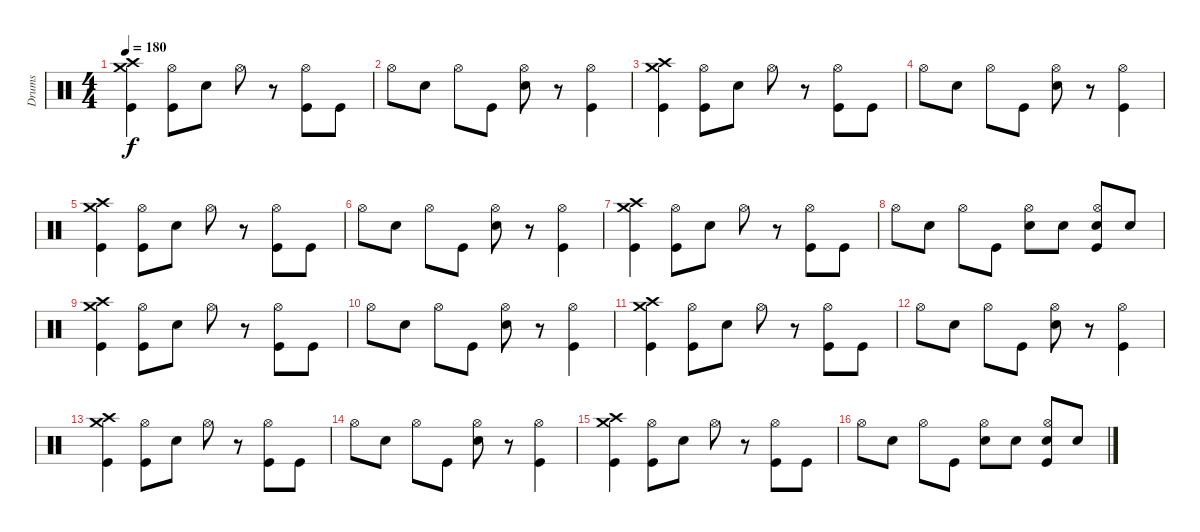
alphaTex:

\track ("Drums" "Drums") {instrument percussion}
\staff {score}
\articulation defaults
\ts (4 4)
\tempo 180
\clef neutral
\ks c
("Crash medium (hit)" "Crash high (hit)" "Kick (hit)").4{dy f} ("Hi-Hat (open)" "Kick (hit)").8 "Snare (hit) 2".8 "Hi-Hat (open)".8 r.8 ("Hi-Hat (open)" "Kick (hit)").8 "Kick (hit)".8 |
"Hi-Hat (open)".8 "Snare (hit) 2".8 "Hi-Hat (open)".8 "Kick (hit)".8 ("Hi-Hat (open)" "Snare (hit) 2").8 r.8 ("Hi-Hat (open)" "Kick (hit)").4 |
("Crash medium (hit)" "Crash high (hit)" "Kick (hit)").4 ("Hi-Hat (open)" "Kick (hit)").8 "Snare (hit) 2".8 "Hi-Hat (open)".8 r.8 ("Hi-Hat (open)" "Kick (hit)").8 "Kick (hit)".8 |
"Hi-Hat (open)".8 "Snare (hit) 2".8 "Hi-Hat (open)".8 "Kick (hit)".8 ("Hi-Hat (open)" "Snare (hit) 2").8 r.8 ("Hi-Hat (open)" "Kick (hit)").4 |
("Crash medium (hit)" "Crash high (hit)" "Kick (hit)").4 ("Hi-Hat (open)" "Kick (hit)").8 "Snare (hit) 2".8 "Hi-Hat (open)".8 r.8 ("Hi-Hat (open)" "Kick (hit)").8 "Kick (hit)".8 |
"Hi-Hat (open)".8 "Snare (hit) 2".8 "Hi-Hat (open)".8 "Kick (hit)".8 ("Hi-Hat (open)" "Snare (hit) 2").8 r.8 ("Hi-Hat (open)" "Kick (hit)").4 |
("Crash medium (hit)" "Crash high (hit)" "Kick (hit)").4 ("Hi-Hat (open)" "Kick (hit)").8 "Snare (hit) 2".8 "Hi-Hat (open)".8 r.8 ("Hi-Hat (open)" "Kick (hit)").8 "Kick (hit)".8 |
"Hi-Hat (open)".8 "Snare (hit) 2".8 "Hi-Hat (open)".8 "Kick (hit)".8 ("Hi-Hat (open)" "Snare (hit) 2").8 "Snare (hit) 2".8 ("Snare (hit) 2" "Hi-Hat (open)" "Kick (hit)").8 "Snare (hit) 2".8 |
("Crash medium (hit)" "Crash high (hit)" "Kick (hit)").4 ("Hi-Hat (open)" "Kick (hit)").8 "Snare (hit) 2".8 "Hi-Hat (open)".8 r.8 ("Hi-Hat (open)" "Kick (hit)").8 "Kick (hit)".8 |
"Hi-Hat (open)".8 "Snare (hit) 2".8 "Hi-Hat (open)".8 "Kick (hit)".8 ("Hi-Hat (open)" "Snare (hit) 2").8 r.8 ("Hi-Hat (open)" "Kick (hit)").4 |
("Crash medium (hit)" "Crash high (hit)" "Kick (hit)").4 ("Hi-Hat (open)" "Kick (hit)").8 "Snare (hit) 2".8 "Hi-Hat (open)".8 r.8 ("Hi-Hat (open)" "Kick (hit)").8 "Kick (hit)".8 |
"Hi-Hat (open)".8 "Snare (hit) 2".8 "Hi-Hat (open)".8 "Kick (hit)".8 ("Hi-Hat (open)" "Snare (hit) 2").8 r.8 ("Hi-Hat (open)" "Kick (hit)").4 |
("Crash medium (hit)" "Crash high (hit)" "Kick (hit)").4 ("Hi-Hat (open)" "Kick (hit)").8 "Snare (hit) 2".8 "Hi-Hat (open)".8 r.8 ("Hi-Hat (open)" "Kick (hit)").8 "Kick (hit)".8 |
"Hi-Hat (open)".8 "Snare (hit) 2".8 "Hi-Hat (open)".8 "Kick (hit)".8 ("Hi-Hat (open)" "Snare (hit) 2").8 r.8 ("Hi-Hat (open)" "Kick (hit)").4 |
("Crash medium (hit)" "Crash high (hit)" "Kick (hit)").4 ("Hi-Hat (open)" "Kick (hit)").8 "Snare (hit) 2".8 "Hi-Hat (open)".8 r.8 ("Hi-Hat (open)" "Kick (hit)").8 "Kick (hit)".8 |
"Hi-Hat (open)".8 "Snare (hit) 2".8 "Hi-Hat (open)".8 "Kick (hit)".8 ("Hi-Hat (open)" "Snare (hit) 2").8 "Snare (hit) 2".8 ("Snare (hit) 2" "Hi-Hat (open)" "Kick (hit)").8 "Snare (hit) 2".8
